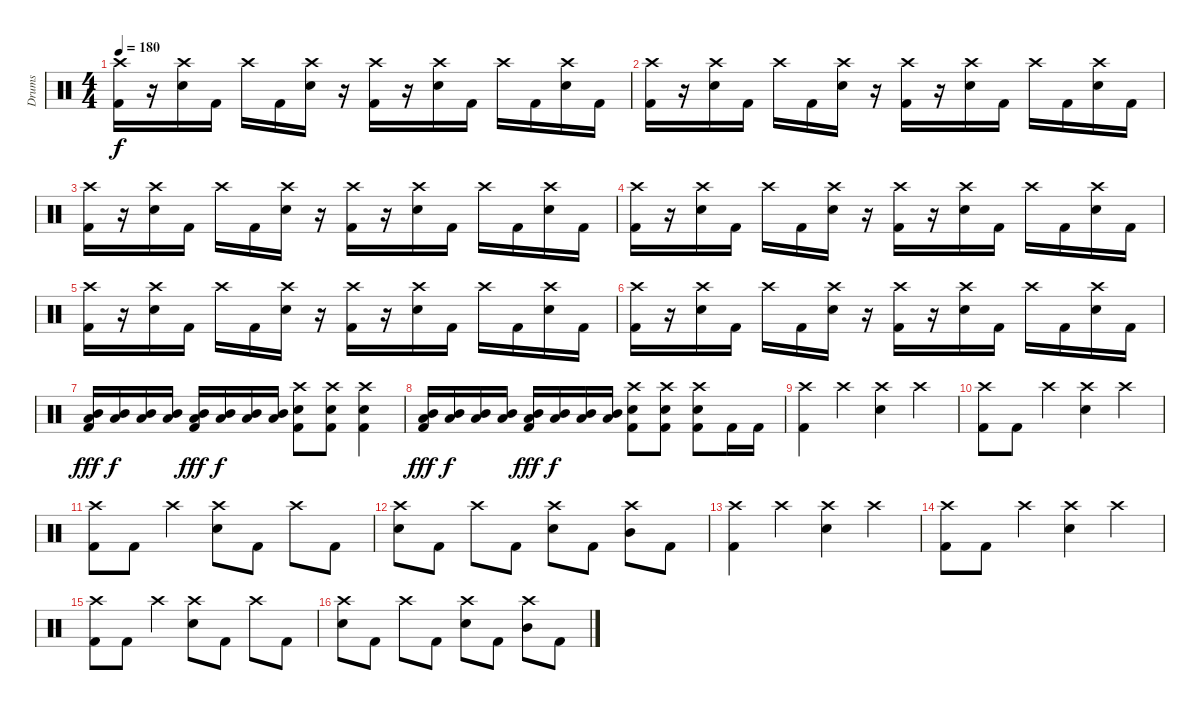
\track ("Drums" "Drums") {instrument percussion}
\staff {score}
\articulation defaults
\ts (4 4)
\tempo 180
\clef neutral
\ks c
("Crash high (hit)" "Kick (hit) 2").16{dy f} r.16 ("Crash high (hit)" "Electric Snare (hit)").16 "Kick (hit) 2".16 "Crash high (hit)".16 "Kick (hit) 2".16 ("Crash high (hit)" "Electric Snare (hit)").16 r.16 ("Crash high (hit)" "Kick (hit) 2").16 r.16 ("Crash high (hit)" "Electric Snare (hit)").16 "Kick (hit) 2".16 "Crash high (hit)".16 "Kick (hit) 2".16 ("Crash high (hit)" "Electric Snare (hit)").16 "Kick (hit) 2".16 |
("Crash high (hit)" "Kick (hit) 2").16 r.16 ("Crash high (hit)" "Electric Snare (hit)").16 "Kick (hit) 2".16 "Crash high (hit)".16 "Kick (hit) 2".16 ("Crash high (hit)" "Electric Snare (hit)").16 r.16 ("Crash high (hit)" "Kick (hit) 2").16 r.16 ("Crash high (hit)" "Electric Snare (hit)").16 "Kick (hit) 2".16 "Crash high (hit)".16 "Kick (hit) 2".16 ("Crash high (hit)" "Electric Snare (hit)").16 "Kick (hit) 2".16 |
("Crash high (hit)" "Kick (hit) 2").16 r.16 ("Crash high (hit)" "Electric Snare (hit)").16 "Kick (hit) 2".16 "Crash high (hit)".16 "Kick (hit) 2".16 ("Crash high (hit)" "Electric Snare (hit)").16 r.16 ("Crash high (hit)" "Kick (hit) 2").16 r.16 ("Crash high (hit)" "Electric Snare (hit)").16 "Kick (hit) 2".16 "Crash high (hit)".16 "Kick (hit) 2".16 ("Crash high (hit)" "Electric Snare (hit)").16 "Kick (hit) 2".16 |
("Crash high (hit)" "Kick (hit) 2").16 r.16 ("Crash high (hit)" "Electric Snare (hit)").16 "Kick (hit) 2".16 "Crash high (hit)".16 "Kick (hit) 2".16 ("Crash high (hit)" "Electric Snare (hit)").16 r.16 ("Crash high (hit)" "Kick (hit) 2").16 r.16 ("Crash high (hit)" "Electric Snare (hit)").16 "Kick (hit) 2".16 "Crash high (hit)".16 "Kick (hit) 2".16 ("Crash high (hit)" "Electric Snare (hit)").16 "Kick (hit) 2".16 |
("Crash high (hit)" "Kick (hit) 2").16 r.16 ("Crash high (hit)" "Electric Snare (hit)").16 "Kick (hit) 2".16 "Crash high (hit)".16 "Kick (hit) 2".16 ("Crash high (hit)" "Electric Snare (hit)").16 r.16 ("Crash high (hit)" "Kick (hit) 2").16 r.16 ("Crash high (hit)" "Electric Snare (hit)").16 "Kick (hit) 2".16 "Crash high (hit)".16 "Kick (hit) 2".16 ("Crash high (hit)" "Electric Snare (hit)").16 "Kick (hit) 2".16 |
("Crash high (hit)" "Kick (hit) 2").16 r.16 ("Crash high (hit)" "Electric Snare (hit)").16 "Kick (hit) 2".16 "Crash high (hit)".16 "Kick (hit) 2".16 ("Crash high (hit)" "Electric Snare (hit)").16 r.16 ("Crash high (hit)" "Kick (hit) 2").16 r.16 ("Crash high (hit)" "Electric Snare (hit)").16 "Kick (hit) 2".16 "Crash high (hit)".16 "Kick (hit) 2".16 ("Crash high (hit)" "Electric Snare (hit)").16 "Kick (hit) 2".16 |
("Mid Tom (hit)" "Low Tom (hit)" "Kick (hit) 2").16{dy fff} ("Mid Tom (hit)" "Low Tom (hit)").16{dy f} ("Mid Tom (hit)" "Low Tom (hit)").16 ("Mid Tom (hit)" "Low Tom (hit)").16 ("Mid Tom (hit)" "Low Tom (hit)" "Kick (hit) 2").16{dy fff} ("Mid Tom (hit)" "Low Tom (hit)").16{dy f} ("Mid Tom (hit)" "Low Tom (hit)").16 ("Mid Tom (hit)" "Low Tom (hit)").16 ("Crash high (hit)" "Electric Snare (hit)" "Kick (hit) 2").8 ("Crash high (hit)" "Electric Snare (hit)" "Kick (hit) 2").8 ("Crash high (hit)" "Electric Snare (hit)" "Kick (hit) 2").4 |
("Mid Tom (hit)" "Low Tom (hit)" "Kick (hit) 2").16{dy fff} ("Mid Tom (hit)" "Low Tom (hit)").16{dy f} ("Mid Tom (hit)" "Low Tom (hit)").16 ("Mid Tom (hit)" "Low Tom (hit)").16 ("Mid Tom (hit)" "Low Tom (hit)" "Kick (hit) 2").16{dy fff} ("Mid Tom (hit)" "Low Tom (hit)").16{dy f} ("Mid Tom (hit)" "Low Tom (hit)").16 ("Mid Tom (hit)" "Low Tom (hit)").16 ("Crash high (hit)" "Electric Snare (hit)" "Kick (hit) 2").8 ("Crash high (hit)" "Electric Snare (hit)" "Kick (hit) 2").8 ("Crash high (hit)" "Electric Snare (hit)" "Kick (hit) 2").8 "Kick (hit) 2".16 "Kick (hit) 2".16 |
("Crash high (hit)" "Kick (hit) 2").4 "Crash high (hit)".4 ("Crash high (hit)" "Electric Snare (hit)").4 "Crash high (hit)".4 |
("Crash high (hit)" "Kick (hit) 2").8 "Kick (hit) 2".8 "Crash high (hit)".4 ("Crash high (hit)" "Electric Snare (hit)").4 "Crash high (hit)".4 |
("Crash high (hit)" "Kick (hit) 2").8 "Kick (hit) 2".8 "Crash high (hit)".4 ("Crash high (hit)" "Electric Snare (hit)").8 "Kick (hit) 2".8 "Crash high (hit)".8 "Kick (hit) 2".8 |
("Crash high (hit)" "Electric Snare (hit)").8 "Kick (hit) 2".8 "Crash high (hit)".8 "Kick (hit) 2".8 ("Crash high (hit)" "Electric Snare (hit)").8 "Kick (hit) 2".8 ("Crash high (hit)" "Mid Tom (hit)").8 "Kick (hit) 2".8 |
("Crash high (hit)" "Kick (hit) 2").4 "Crash high (hit)".4 ("Crash high (hit)" "Electric Snare (hit)").4 "Crash high (hit)".4 |
("Crash high (hit)" "Kick (hit) 2").8 "Kick (hit) 2".8 "Crash high (hit)".4 ("Crash high (hit)" "Electric Snare (hit)").4 "Crash high (hit)".4 |
("Crash high (hit)" "Kick (hit) 2").8 "Kick (hit) 2".8 "Crash high (hit)".4 ("Crash high (hit)" "Electric Snare (hit)").8 "Kick (hit) 2".8 "Crash high (hit)".8 "Kick (hit) 2".8 |
("Crash high (hit)" "Electric Snare (hit)").8 "Kick (hit) 2".8 "Crash high (hit)".8 "Kick (hit) 2".8 ("Crash high (hit)" "Electric Snare (hit)").8 "Kick (hit) 2".8 ("Crash high (hit)" "Mid Tom (hit)").8 "Kick (hit) 2".8
